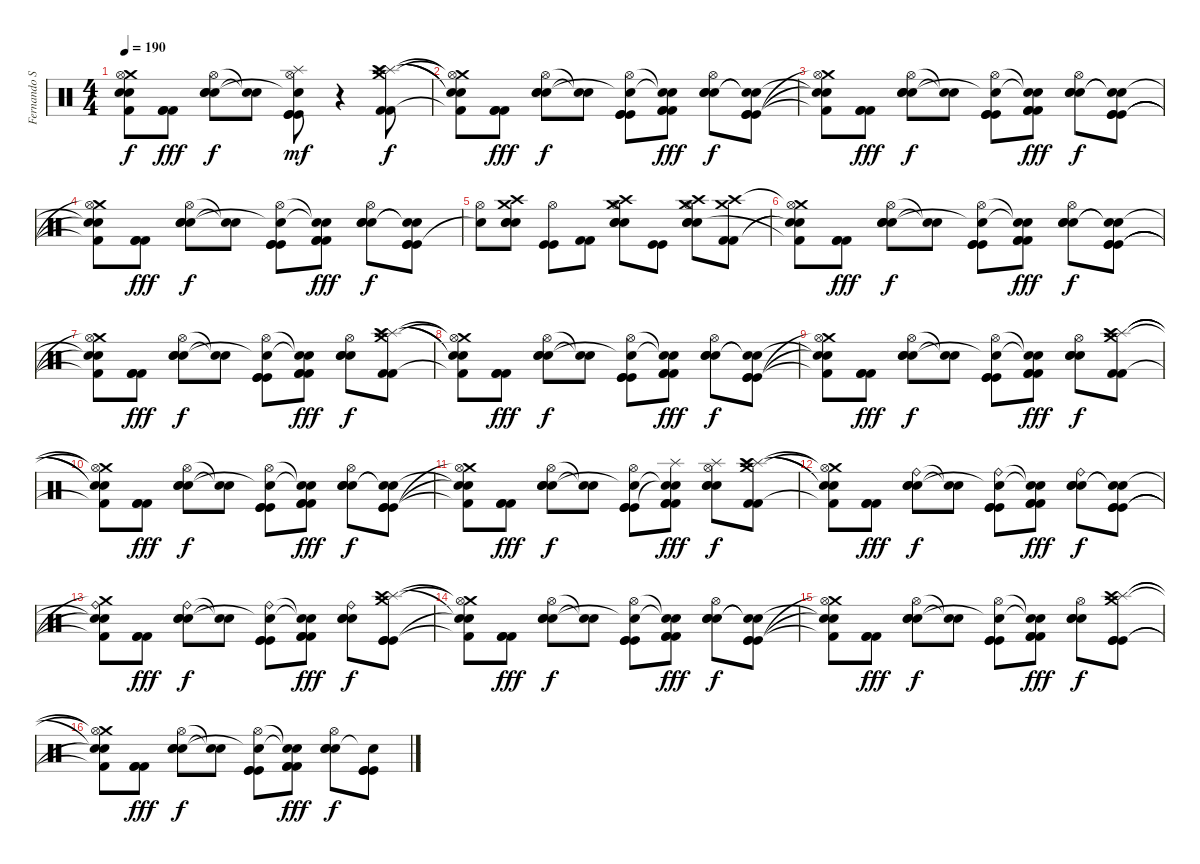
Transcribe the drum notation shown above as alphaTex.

\track ("Fernando Sarcella" "Fernando S") {instrument percussion}
\staff {score}
\articulation defaults
\ts (4 4)
\tempo 190
\clef neutral
\ks c
("Crash medium (hit)"{t} "Hi-Hat (open)" "Snare (hit)"{t} "Snare (hit)"{t} "Kick (hit) 2"{t}).8{dy f} ("Kick (hit) 2" "Kick (hit) 2" "Kick (hit) 2").8{dy fff} ("Hi-Hat (open)" "Electric Snare (hit)" "Electric Snare (hit)" "Electric Snare (hit)").8{dy f} ("Snare (hit)"{t} "Snare (hit)"{t}).8 ("Kick (hit)" "Splash (hit)" "Hi-Hat (open)" "Snare (hit)"{t} "Kick (hit)" "Kick (hit)").8{dy mf} r.4 ("Crash medium (hit)" "Splash (hit)" "Crash high (hit)" "Splash (hit)" "Kick (hit) 2" "Kick (hit) 2").8{dy f} |
("Crash medium (hit)"{t} "Hi-Hat (open)"{t} "Snare (hit)"{t} "Snare (hit)"{t} "Kick (hit) 2"{t}).8 ("Kick (hit) 2" "Kick (hit) 2" "Kick (hit) 2").8{dy fff} ("Hi-Hat (open)" "Electric Snare (hit)" "Electric Snare (hit)" "Electric Snare (hit)").8{dy f} ("Snare (hit)"{t} "Snare (hit)"{t}).8 ("Kick (hit)" "Hi-Hat (open)" "Snare (hit)"{t} "Kick (hit)" "Kick (hit)").8 ("Kick (hit) 2" "Snare (hit)"{t} "Snare (hit)"{t} "Kick (hit) 2" "Kick (hit) 2").8{dy fff} ("Hi-Hat (open)" "Electric Snare (hit)" "Electric Snare (hit)" "Electric Snare (hit)").8{dy f} ("Kick (hit)" "Snare (hit)"{t} "Snare (hit)"{t} "Kick (hit)" "Kick (hit)").8 |
("Crash medium (hit)"{t} "Hi-Hat (open)" "Snare (hit)"{t} "Snare (hit)"{t} "Kick (hit) 2"{t}).8 ("Kick (hit) 2" "Kick (hit) 2" "Kick (hit) 2").8{dy fff} ("Hi-Hat (open)" "Electric Snare (hit)" "Electric Snare (hit)" "Electric Snare (hit)").8{dy f} ("Snare (hit)"{t} "Snare (hit)"{t}).8 ("Kick (hit)" "Hi-Hat (open)" "Snare (hit)"{t} "Kick (hit)" "Kick (hit)").8 ("Kick (hit) 2" "Snare (hit)"{t} "Snare (hit)"{t} "Kick (hit) 2" "Kick (hit) 2").8{dy fff} ("Hi-Hat (open)" "Electric Snare (hit)" "Electric Snare (hit)" "Electric Snare (hit)").8{dy f} ("Kick (hit)" "Snare (hit)"{t} "Snare (hit)"{t} "Kick (hit)" "Kick (hit)").8 |
("Crash medium (hit)"{t} "Hi-Hat (open)" "Snare (hit)"{t} "Snare (hit)"{t} "Kick (hit) 2"{t}).8 ("Kick (hit) 2" "Kick (hit) 2" "Kick (hit) 2").8{dy fff} ("Hi-Hat (open)" "Electric Snare (hit)" "Electric Snare (hit)" "Electric Snare (hit)").8{dy f} ("Snare (hit)"{t} "Snare (hit)"{t}).8 ("Kick (hit)" "Hi-Hat (open)" "Snare (hit)"{t} "Kick (hit)" "Kick (hit)").8 ("Kick (hit) 2" "Snare (hit)"{t} "Snare (hit)"{t} "Kick (hit) 2" "Kick (hit) 2").8{dy fff} ("Hi-Hat (open)" "Electric Snare (hit)" "Electric Snare (hit)" "Electric Snare (hit)").8{dy f} ("Kick (hit)" "Snare (hit)"{t} "Snare (hit)"{t} "Kick (hit)" "Kick (hit)").8 |
("Electric Snare (hit)"{t} "Hi-Hat (open)").8 ("Crash high (hit)" "Crash medium (hit)" "Electric Snare (hit)" "Electric Snare (hit)" "Electric Snare (hit)").8 ("Hi-Hat (open)" "Kick (hit)" "Kick (hit)").8 ("Kick (hit) 2" "Kick (hit) 2").8 ("Crash high (hit)" "Hi-Hat (open)" "Crash medium (hit)" "Electric Snare (hit)" "Electric Snare (hit)" "Electric Snare (hit)").8 ("Kick (hit)" "Kick (hit)").8 ("Crash high (hit)" "Hi-Hat (open)" "Crash medium (hit)" "Electric Snare (hit)" "Electric Snare (hit)" "Electric Snare (hit)").8 ("Crash high (hit)" "Crash medium (hit)" "Kick (hit) 2" "Kick (hit) 2").8 |
("Crash medium (hit)"{t} "Hi-Hat (open)" "Snare (hit)"{t} "Snare (hit)"{t} "Kick (hit) 2"{t}).8 ("Kick (hit) 2" "Kick (hit) 2" "Kick (hit) 2").8{dy fff} ("Hi-Hat (open)" "Electric Snare (hit)" "Electric Snare (hit)" "Electric Snare (hit)").8{dy f} ("Snare (hit)"{t} "Snare (hit)"{t}).8 ("Kick (hit)" "Hi-Hat (open)" "Snare (hit)"{t} "Kick (hit)" "Kick (hit)").8 ("Kick (hit) 2" "Snare (hit)"{t} "Snare (hit)"{t} "Kick (hit) 2" "Kick (hit) 2").8{dy fff} ("Hi-Hat (open)" "Electric Snare (hit)" "Electric Snare (hit)" "Electric Snare (hit)").8{dy f} ("Kick (hit)" "Snare (hit)"{t} "Snare (hit)"{t} "Kick (hit)" "Kick (hit)").8 |
("Crash medium (hit)"{t} "Hi-Hat (open)" "Snare (hit)"{t} "Snare (hit)"{t} "Kick (hit) 2"{t}).8 ("Kick (hit) 2" "Kick (hit) 2" "Kick (hit) 2").8{dy fff} ("Hi-Hat (open)" "Electric Snare (hit)" "Electric Snare (hit)" "Electric Snare (hit)").8{dy f} ("Snare (hit)"{t} "Snare (hit)"{t}).8 ("Kick (hit)" "Hi-Hat (open)" "Snare (hit)"{t} "Kick (hit)" "Kick (hit)").8 ("Kick (hit) 2" "Snare (hit)"{t} "Snare (hit)"{t} "Kick (hit) 2" "Kick (hit) 2").8{dy fff} ("Hi-Hat (open)" "Electric Snare (hit)" "Electric Snare (hit)" "Electric Snare (hit)").8{dy f} ("Splash (hit)" "Crash medium (hit)" "Splash (hit)" "Crash high (hit)" "Kick (hit) 2" "Kick (hit) 2").8 |
("Crash medium (hit)"{t} "Hi-Hat (open)"{t} "Snare (hit)"{t} "Snare (hit)"{t} "Kick (hit) 2"{t}).8 ("Kick (hit) 2" "Kick (hit) 2" "Kick (hit) 2").8{dy fff} ("Hi-Hat (open)" "Electric Snare (hit)" "Electric Snare (hit)" "Electric Snare (hit)").8{dy f} ("Snare (hit)"{t} "Snare (hit)"{t}).8 ("Kick (hit)" "Hi-Hat (open)" "Snare (hit)"{t} "Kick (hit)" "Kick (hit)").8 ("Kick (hit) 2" "Snare (hit)"{t} "Snare (hit)"{t} "Kick (hit) 2" "Kick (hit) 2").8{dy fff} ("Hi-Hat (open)" "Electric Snare (hit)" "Electric Snare (hit)" "Electric Snare (hit)").8{dy f} ("Kick (hit)" "Snare (hit)"{t} "Snare (hit)"{t} "Kick (hit)" "Kick (hit)").8 |
("Crash medium (hit)"{t} "Hi-Hat (open)" "Snare (hit)"{t} "Snare (hit)"{t} "Kick (hit) 2"{t}).8 ("Kick (hit) 2" "Kick (hit) 2" "Kick (hit) 2").8{dy fff} ("Hi-Hat (open)" "Electric Snare (hit)" "Electric Snare (hit)" "Electric Snare (hit)").8{dy f} ("Snare (hit)"{t} "Snare (hit)"{t}).8 ("Kick (hit)" "Hi-Hat (open)" "Snare (hit)"{t} "Kick (hit)" "Kick (hit)").8 ("Kick (hit) 2" "Snare (hit)"{t} "Snare (hit)"{t} "Kick (hit) 2" "Kick (hit) 2").8{dy fff} ("Hi-Hat (open)" "Electric Snare (hit)" "Electric Snare (hit)" "Electric Snare (hit)").8{dy f} ("Splash (hit)" "Crash medium (hit)" "Splash (hit)" "Crash high (hit)" "Kick (hit) 2" "Kick (hit) 2").8 |
("Crash medium (hit)"{t} "Hi-Hat (open)"{t} "Snare (hit)"{t} "Snare (hit)"{t} "Kick (hit) 2"{t}).8 ("Kick (hit) 2" "Kick (hit) 2" "Kick (hit) 2").8{dy fff} ("Hi-Hat (open)" "Electric Snare (hit)" "Electric Snare (hit)" "Electric Snare (hit)").8{dy f} ("Snare (hit)"{t} "Snare (hit)"{t}).8 ("Kick (hit)" "Hi-Hat (open)" "Snare (hit)"{t} "Kick (hit)" "Kick (hit)").8 ("Kick (hit) 2" "Snare (hit)"{t} "Snare (hit)"{t} "Kick (hit) 2" "Kick (hit) 2").8{dy fff} ("Hi-Hat (open)" "Electric Snare (hit)" "Electric Snare (hit)" "Electric Snare (hit)").8{dy f} ("Kick (hit)" "Snare (hit)"{t} "Snare (hit)"{t} "Kick (hit)" "Kick (hit)").8 |
("Crash medium (hit)"{t} "Hi-Hat (open)" "Snare (hit)"{t} "Snare (hit)"{t} "Kick (hit) 2"{t}).8 ("Kick (hit) 2" "Kick (hit) 2" "Kick (hit) 2").8{dy fff} ("Hi-Hat (open)" "Electric Snare (hit)" "Electric Snare (hit)" "Electric Snare (hit)").8{dy f} ("Snare (hit)"{t} "Snare (hit)"{t}).8 ("Kick (hit)" "Hi-Hat (open)" "Snare (hit)"{t} "Kick (hit)" "Kick (hit)").8 ("Kick (hit) 2" "Splash (hit)" "Snare (hit)"{t} "Snare (hit)"{t} "Kick (hit) 2" "Kick (hit) 2").8{dy fff} ("Splash (hit)" "Hi-Hat (open)" "Electric Snare (hit)" "Electric Snare (hit)" "Electric Snare (hit)").8{dy f} ("Splash (hit)" "Crash medium (hit)" "Splash (hit)" "Crash high (hit)" "Kick (hit) 2" "Kick (hit) 2").8 |
("Crash medium (hit)"{t} "Hi-Hat (open)"{t} "Snare (hit)"{t} "Snare (hit)"{t} "Kick (hit) 2"{t}).8 ("Kick (hit) 2" "Kick (hit) 2" "Kick (hit) 2").8{dy fff} ("Ride (bell)" "Electric Snare (hit)" "Electric Snare (hit)" "Electric Snare (hit)").8{dy f} ("Snare (hit)"{t} "Snare (hit)"{t}).8 ("Kick (hit)" "Ride (bell)" "Snare (hit)"{t} "Kick (hit)" "Kick (hit)").8 ("Kick (hit) 2" "Snare (hit)"{t} "Snare (hit)"{t} "Kick (hit) 2" "Kick (hit) 2").8{dy fff} ("Ride (bell)" "Electric Snare (hit)" "Electric Snare (hit)" "Electric Snare (hit)").8{dy f} ("Kick (hit)" "Snare (hit)"{t} "Snare (hit)"{t} "Kick (hit)" "Kick (hit)").8 |
("Crash medium (hit)"{t} "Ride (bell)" "Snare (hit)"{t} "Snare (hit)"{t} "Kick (hit) 2"{t}).8 ("Kick (hit) 2" "Kick (hit) 2" "Kick (hit) 2").8{dy fff} ("Ride (bell)" "Electric Snare (hit)" "Electric Snare (hit)" "Electric Snare (hit)").8{dy f} ("Snare (hit)"{t} "Snare (hit)"{t}).8 ("Kick (hit)" "Ride (bell)" "Snare (hit)"{t} "Kick (hit)" "Kick (hit)").8 ("Kick (hit) 2" "Snare (hit)"{t} "Snare (hit)"{t} "Kick (hit) 2" "Kick (hit) 2").8{dy fff} ("Ride (bell)" "Electric Snare (hit)" "Electric Snare (hit)" "Electric Snare (hit)").8{dy f} ("Crash medium (hit)" "Splash (hit)" "Kick (hit)" "Crash high (hit)" "Kick (hit)" "Kick (hit)").8 |
("Crash medium (hit)"{t} "Hi-Hat (open)"{t} "Snare (hit)"{t} "Snare (hit)"{t} "Kick (hit) 2"{t}).8 ("Kick (hit) 2" "Kick (hit) 2" "Kick (hit) 2").8{dy fff} ("Hi-Hat (open)" "Electric Snare (hit)" "Electric Snare (hit)" "Electric Snare (hit)").8{dy f} ("Snare (hit)"{t} "Snare (hit)"{t}).8 ("Kick (hit)" "Hi-Hat (open)" "Snare (hit)"{t} "Kick (hit)" "Kick (hit)").8 ("Kick (hit) 2" "Snare (hit)"{t} "Snare (hit)"{t} "Kick (hit) 2" "Kick (hit) 2").8{dy fff} ("Hi-Hat (open)" "Electric Snare (hit)" "Electric Snare (hit)" "Electric Snare (hit)").8{dy f} ("Kick (hit)" "Snare (hit)"{t} "Snare (hit)"{t} "Kick (hit)" "Kick (hit)").8 |
("Crash medium (hit)"{t} "Hi-Hat (open)" "Snare (hit)"{t} "Snare (hit)"{t} "Kick (hit) 2"{t}).8 ("Kick (hit) 2" "Kick (hit) 2" "Kick (hit) 2").8{dy fff} ("Hi-Hat (open)" "Electric Snare (hit)" "Electric Snare (hit)" "Electric Snare (hit)").8{dy f} ("Snare (hit)"{t} "Snare (hit)"{t}).8 ("Kick (hit)" "Hi-Hat (open)" "Snare (hit)"{t} "Kick (hit)" "Kick (hit)").8 ("Kick (hit) 2" "Snare (hit)"{t} "Snare (hit)"{t} "Kick (hit) 2" "Kick (hit) 2").8{dy fff} ("Hi-Hat (open)" "Electric Snare (hit)" "Electric Snare (hit)" "Electric Snare (hit)").8{dy f} ("Crash medium (hit)" "Splash (hit)" "Crash high (hit)" "Kick (hit)" "Kick (hit)" "Kick (hit)").8 |
("Crash medium (hit)"{t} "Hi-Hat (open)"{t} "Snare (hit)"{t} "Snare (hit)"{t} "Kick (hit) 2"{t}).8 ("Kick (hit) 2" "Kick (hit) 2" "Kick (hit) 2").8{dy fff} ("Hi-Hat (open)" "Electric Snare (hit)" "Electric Snare (hit)" "Electric Snare (hit)").8{dy f} ("Snare (hit)"{t} "Snare (hit)"{t}).8 ("Kick (hit)" "Hi-Hat (open)" "Snare (hit)"{t} "Kick (hit)" "Kick (hit)").8 ("Kick (hit) 2" "Snare (hit)"{t} "Snare (hit)"{t} "Kick (hit) 2" "Kick (hit) 2").8{dy fff} ("Hi-Hat (open)" "Electric Snare (hit)" "Electric Snare (hit)" "Electric Snare (hit)").8{dy f} ("Kick (hit)" "Snare (hit)"{t} "Kick (hit)" "Kick (hit)").8
